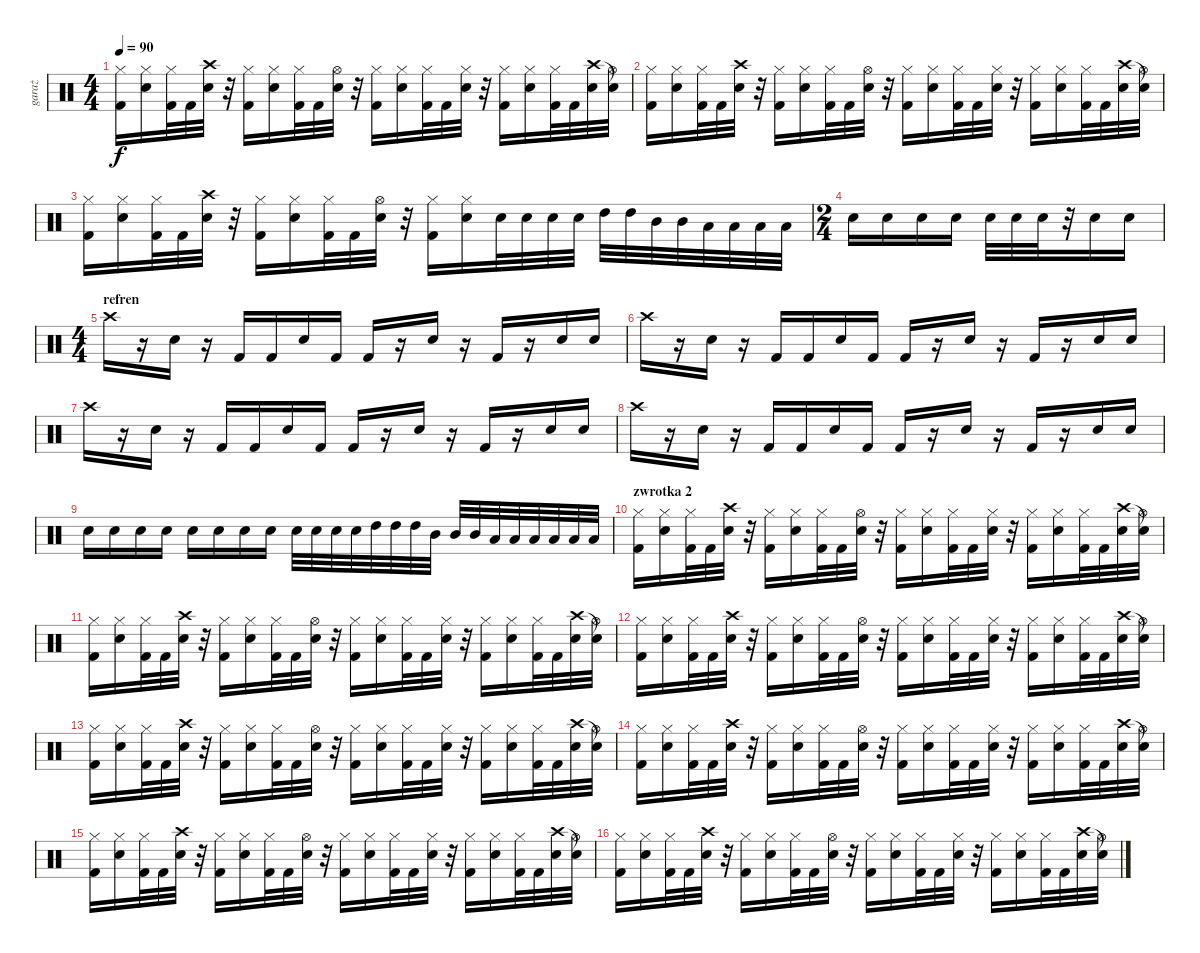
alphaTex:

\track ("garaż" "garaż") {instrument percussion}
\staff {score}
\articulation defaults
\ts (4 4)
\tempo 90
\clef neutral
\ks c
("Hi-Hat (closed)" "Kick (hit) 2").16{dy f} ("Hi-Hat (closed)" "Snare (hit) 2").16 ("Hi-Hat (closed)" "Kick (hit) 2").32 "Kick (hit) 2".32 ("Crash high (hit)" "Snare (hit) 2").32 r.32 ("Hi-Hat (closed)" "Kick (hit) 2").16 ("Hi-Hat (closed)" "Snare (hit) 2").16 ("Hi-Hat (closed)" "Kick (hit) 2").32 "Kick (hit) 2".32 ("Hi-Hat (open)" "Snare (hit) 2").32 r.32 ("Hi-Hat (closed)" "Kick (hit) 2").16 ("Hi-Hat (closed)" "Snare (hit) 2").16 ("Hi-Hat (closed)" "Kick (hit) 2").32 "Kick (hit) 2".32 ("Hi-Hat (closed)" "Snare (hit) 2").32 r.32 ("Hi-Hat (closed)" "Kick (hit) 2").16 ("Hi-Hat (closed)" "Snare (hit) 2").16 ("Hi-Hat (closed)" "Kick (hit) 2").32 "Kick (hit) 2".32 ("Crash high (hit)" "Snare (hit) 2").32 ("Snare (hit)"{t} "Hi-Hat (open)").32 |
("Hi-Hat (closed)" "Kick (hit) 2").16 ("Hi-Hat (closed)" "Snare (hit) 2").16 ("Hi-Hat (closed)" "Kick (hit) 2").32 "Kick (hit) 2".32 ("Crash high (hit)" "Snare (hit) 2").32 r.32 ("Hi-Hat (closed)" "Kick (hit) 2").16 ("Hi-Hat (closed)" "Snare (hit) 2").16 ("Hi-Hat (closed)" "Kick (hit) 2").32 "Kick (hit) 2".32 ("Hi-Hat (open)" "Snare (hit) 2").32 r.32 ("Hi-Hat (closed)" "Kick (hit) 2").16 ("Hi-Hat (closed)" "Snare (hit) 2").16 ("Hi-Hat (closed)" "Kick (hit) 2").32 "Kick (hit) 2".32 ("Hi-Hat (closed)" "Snare (hit) 2").32 r.32 ("Hi-Hat (closed)" "Kick (hit) 2").16 ("Hi-Hat (closed)" "Snare (hit) 2").16 ("Hi-Hat (closed)" "Kick (hit) 2").32 "Kick (hit) 2".32 ("Crash high (hit)" "Snare (hit) 2").32 ("Snare (hit)"{t} "Hi-Hat (open)").32 |
("Hi-Hat (closed)" "Kick (hit) 2").16 ("Hi-Hat (closed)" "Snare (hit) 2").16 ("Hi-Hat (closed)" "Kick (hit) 2").32 "Kick (hit) 2".32 ("Crash high (hit)" "Snare (hit) 2").32 r.32 ("Hi-Hat (closed)" "Kick (hit) 2").16 ("Hi-Hat (closed)" "Snare (hit) 2").16 ("Hi-Hat (closed)" "Kick (hit) 2").32 "Kick (hit) 2".32 ("Hi-Hat (open)" "Snare (hit) 2").32 r.32 ("Hi-Hat (closed)" "Kick (hit) 2").16 ("Hi-Hat (closed)" "Snare (hit) 2").16 "Snare (hit) 2".32 "Snare (hit) 2".32 "Snare (hit) 2".32 "Snare (hit) 2".32 "High Tom (hit)".32 "High Tom (hit)".32 "Mid Tom (hit)".32 "Mid Tom (hit)".32 "Low Tom (hit)".32 "Low Tom (hit)".32 "Low Floor Tom (hit)".32 "Low Floor Tom (hit)".32 |
\ts (2 4)
"Snare (hit) 2".16 "Snare (hit) 2".16 "Snare (hit) 2".16 "Snare (hit) 2".16 "Snare (hit) 2".32 "Snare (hit) 2".32 "Snare (hit) 2".32 r.32 "Snare (hit) 2".16 "Snare (hit) 2".16 |
\ts (4 4)
\section ("" "refren")
"Crash high (hit)".16 r.16 "Snare (hit) 2".16 r.16 "Kick (hit) 2".16 "Kick (hit) 2".16 "Snare (hit) 2".16 "Kick (hit) 2".16 "Kick (hit) 2".16 r.16 "Snare (hit) 2".16 r.16 "Kick (hit) 2".16 r.16 "Snare (hit) 2".16 "Snare (hit) 2".16 |
"Crash high (hit)".16 r.16 "Snare (hit) 2".16 r.16 "Kick (hit) 2".16 "Kick (hit) 2".16 "Snare (hit) 2".16 "Kick (hit) 2".16 "Kick (hit) 2".16 r.16 "Snare (hit) 2".16 r.16 "Kick (hit) 2".16 r.16 "Snare (hit) 2".16 "Snare (hit) 2".16 |
"Crash high (hit)".16 r.16 "Snare (hit) 2".16 r.16 "Kick (hit) 2".16 "Kick (hit) 2".16 "Snare (hit) 2".16 "Kick (hit) 2".16 "Kick (hit) 2".16 r.16 "Snare (hit) 2".16 r.16 "Kick (hit) 2".16 r.16 "Snare (hit) 2".16 "Snare (hit) 2".16 |
"Crash high (hit)".16 r.16 "Snare (hit) 2".16 r.16 "Kick (hit) 2".16 "Kick (hit) 2".16 "Snare (hit) 2".16 "Kick (hit) 2".16 "Kick (hit) 2".16 r.16 "Snare (hit) 2".16 r.16 "Kick (hit) 2".16 r.16 "Snare (hit) 2".16 "Snare (hit) 2".16 |
"Snare (hit) 2".16 "Snare (hit) 2".16 "Snare (hit) 2".16 "Snare (hit) 2".16 "Snare (hit) 2".16 "Snare (hit) 2".16 "Snare (hit) 2".16 "Snare (hit) 2".16 "Snare (hit) 2".32 "Snare (hit) 2".32 "Snare (hit) 2".32 "Snare (hit) 2".32 "High Tom (hit)".32 "High Tom (hit)".32 "High Tom (hit)".32 "Mid Tom (hit)".32 "Mid Tom (hit)".32 "Mid Tom (hit)".32 "Low Tom (hit)".32 "Low Tom (hit)".32 "Low Tom (hit)".32 "Low Floor Tom (hit)".32 "Low Floor Tom (hit)".32 "Low Floor Tom (hit)".32 |
\section ("" "zwrotka 2")
("Hi-Hat (closed)" "Kick (hit) 2").16 ("Hi-Hat (closed)" "Snare (hit) 2").16 ("Hi-Hat (closed)" "Kick (hit) 2").32 "Kick (hit) 2".32 ("Crash high (hit)" "Snare (hit) 2").32 r.32 ("Hi-Hat (closed)" "Kick (hit) 2").16 ("Hi-Hat (closed)" "Snare (hit) 2").16 ("Hi-Hat (closed)" "Kick (hit) 2").32 "Kick (hit) 2".32 ("Hi-Hat (open)" "Snare (hit) 2").32 r.32 ("Hi-Hat (closed)" "Kick (hit) 2").16 ("Hi-Hat (closed)" "Snare (hit) 2").16 ("Hi-Hat (closed)" "Kick (hit) 2").32 "Kick (hit) 2".32 ("Hi-Hat (closed)" "Snare (hit) 2").32 r.32 ("Hi-Hat (closed)" "Kick (hit) 2").16 ("Hi-Hat (closed)" "Snare (hit) 2").16 ("Hi-Hat (closed)" "Kick (hit) 2").32 "Kick (hit) 2".32 ("Crash high (hit)" "Snare (hit) 2").32 ("Snare (hit)"{t} "Hi-Hat (open)").32 |
("Hi-Hat (closed)" "Kick (hit) 2").16 ("Hi-Hat (closed)" "Snare (hit) 2").16 ("Hi-Hat (closed)" "Kick (hit) 2").32 "Kick (hit) 2".32 ("Crash high (hit)" "Snare (hit) 2").32 r.32 ("Hi-Hat (closed)" "Kick (hit) 2").16 ("Hi-Hat (closed)" "Snare (hit) 2").16 ("Hi-Hat (closed)" "Kick (hit) 2").32 "Kick (hit) 2".32 ("Hi-Hat (open)" "Snare (hit) 2").32 r.32 ("Hi-Hat (closed)" "Kick (hit) 2").16 ("Hi-Hat (closed)" "Snare (hit) 2").16 ("Hi-Hat (closed)" "Kick (hit) 2").32 "Kick (hit) 2".32 ("Hi-Hat (closed)" "Snare (hit) 2").32 r.32 ("Hi-Hat (closed)" "Kick (hit) 2").16 ("Hi-Hat (closed)" "Snare (hit) 2").16 ("Hi-Hat (closed)" "Kick (hit) 2").32 "Kick (hit) 2".32 ("Crash high (hit)" "Snare (hit) 2").32 ("Snare (hit)"{t} "Hi-Hat (open)").32 |
("Hi-Hat (closed)" "Kick (hit) 2").16 ("Hi-Hat (closed)" "Snare (hit) 2").16 ("Hi-Hat (closed)" "Kick (hit) 2").32 "Kick (hit) 2".32 ("Crash high (hit)" "Snare (hit) 2").32 r.32 ("Hi-Hat (closed)" "Kick (hit) 2").16 ("Hi-Hat (closed)" "Snare (hit) 2").16 ("Hi-Hat (closed)" "Kick (hit) 2").32 "Kick (hit) 2".32 ("Hi-Hat (open)" "Snare (hit) 2").32 r.32 ("Hi-Hat (closed)" "Kick (hit) 2").16 ("Hi-Hat (closed)" "Snare (hit) 2").16 ("Hi-Hat (closed)" "Kick (hit) 2").32 "Kick (hit) 2".32 ("Hi-Hat (closed)" "Snare (hit) 2").32 r.32 ("Hi-Hat (closed)" "Kick (hit) 2").16 ("Hi-Hat (closed)" "Snare (hit) 2").16 ("Hi-Hat (closed)" "Kick (hit) 2").32 "Kick (hit) 2".32 ("Crash high (hit)" "Snare (hit) 2").32 ("Snare (hit)"{t} "Hi-Hat (open)").32 |
("Hi-Hat (closed)" "Kick (hit) 2").16 ("Hi-Hat (closed)" "Snare (hit) 2").16 ("Hi-Hat (closed)" "Kick (hit) 2").32 "Kick (hit) 2".32 ("Crash high (hit)" "Snare (hit) 2").32 r.32 ("Hi-Hat (closed)" "Kick (hit) 2").16 ("Hi-Hat (closed)" "Snare (hit) 2").16 ("Hi-Hat (closed)" "Kick (hit) 2").32 "Kick (hit) 2".32 ("Hi-Hat (open)" "Snare (hit) 2").32 r.32 ("Hi-Hat (closed)" "Kick (hit) 2").16 ("Hi-Hat (closed)" "Snare (hit) 2").16 ("Hi-Hat (closed)" "Kick (hit) 2").32 "Kick (hit) 2".32 ("Hi-Hat (closed)" "Snare (hit) 2").32 r.32 ("Hi-Hat (closed)" "Kick (hit) 2").16 ("Hi-Hat (closed)" "Snare (hit) 2").16 ("Hi-Hat (closed)" "Kick (hit) 2").32 "Kick (hit) 2".32 ("Crash high (hit)" "Snare (hit) 2").32 ("Snare (hit)"{t} "Hi-Hat (open)").32 |
("Hi-Hat (closed)" "Kick (hit) 2").16 ("Hi-Hat (closed)" "Snare (hit) 2").16 ("Hi-Hat (closed)" "Kick (hit) 2").32 "Kick (hit) 2".32 ("Crash high (hit)" "Snare (hit) 2").32 r.32 ("Hi-Hat (closed)" "Kick (hit) 2").16 ("Hi-Hat (closed)" "Snare (hit) 2").16 ("Hi-Hat (closed)" "Kick (hit) 2").32 "Kick (hit) 2".32 ("Hi-Hat (open)" "Snare (hit) 2").32 r.32 ("Hi-Hat (closed)" "Kick (hit) 2").16 ("Hi-Hat (closed)" "Snare (hit) 2").16 ("Hi-Hat (closed)" "Kick (hit) 2").32 "Kick (hit) 2".32 ("Hi-Hat (closed)" "Snare (hit) 2").32 r.32 ("Hi-Hat (closed)" "Kick (hit) 2").16 ("Hi-Hat (closed)" "Snare (hit) 2").16 ("Hi-Hat (closed)" "Kick (hit) 2").32 "Kick (hit) 2".32 ("Crash high (hit)" "Snare (hit) 2").32 ("Snare (hit)"{t} "Hi-Hat (open)").32 |
("Hi-Hat (closed)" "Kick (hit) 2").16 ("Hi-Hat (closed)" "Snare (hit) 2").16 ("Hi-Hat (closed)" "Kick (hit) 2").32 "Kick (hit) 2".32 ("Crash high (hit)" "Snare (hit) 2").32 r.32 ("Hi-Hat (closed)" "Kick (hit) 2").16 ("Hi-Hat (closed)" "Snare (hit) 2").16 ("Hi-Hat (closed)" "Kick (hit) 2").32 "Kick (hit) 2".32 ("Hi-Hat (open)" "Snare (hit) 2").32 r.32 ("Hi-Hat (closed)" "Kick (hit) 2").16 ("Hi-Hat (closed)" "Snare (hit) 2").16 ("Hi-Hat (closed)" "Kick (hit) 2").32 "Kick (hit) 2".32 ("Hi-Hat (closed)" "Snare (hit) 2").32 r.32 ("Hi-Hat (closed)" "Kick (hit) 2").16 ("Hi-Hat (closed)" "Snare (hit) 2").16 ("Hi-Hat (closed)" "Kick (hit) 2").32 "Kick (hit) 2".32 ("Crash high (hit)" "Snare (hit) 2").32 ("Snare (hit)"{t} "Hi-Hat (open)").32 |
("Hi-Hat (closed)" "Kick (hit) 2").16 ("Hi-Hat (closed)" "Snare (hit) 2").16 ("Hi-Hat (closed)" "Kick (hit) 2").32 "Kick (hit) 2".32 ("Crash high (hit)" "Snare (hit) 2").32 r.32 ("Hi-Hat (closed)" "Kick (hit) 2").16 ("Hi-Hat (closed)" "Snare (hit) 2").16 ("Hi-Hat (closed)" "Kick (hit) 2").32 "Kick (hit) 2".32 ("Hi-Hat (open)" "Snare (hit) 2").32 r.32 ("Hi-Hat (closed)" "Kick (hit) 2").16 ("Hi-Hat (closed)" "Snare (hit) 2").16 ("Hi-Hat (closed)" "Kick (hit) 2").32 "Kick (hit) 2".32 ("Hi-Hat (closed)" "Snare (hit) 2").32 r.32 ("Hi-Hat (closed)" "Kick (hit) 2").16 ("Hi-Hat (closed)" "Snare (hit) 2").16 ("Hi-Hat (closed)" "Kick (hit) 2").32 "Kick (hit) 2".32 ("Crash high (hit)" "Snare (hit) 2").32 ("Snare (hit)"{t} "Hi-Hat (open)").32
